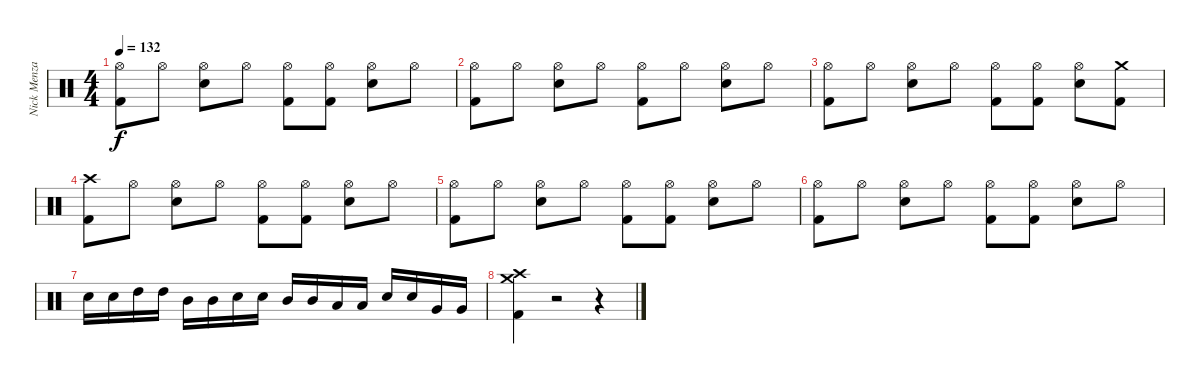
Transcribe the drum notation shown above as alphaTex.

\track ("Nick Menza (Drums)" "Nick Menza") {instrument percussion}
\staff {score}
\articulation defaults
\ts (4 4)
\tempo 132
\clef neutral
\ks c
("Hi-Hat (open)" "Kick (hit) 2").8{dy f} "Hi-Hat (open)".8 ("Hi-Hat (open)" "Snare (hit) 2").8 "Hi-Hat (open)".8 ("Hi-Hat (open)" "Kick (hit) 2").8 ("Hi-Hat (open)" "Kick (hit) 2").8 ("Hi-Hat (open)" "Snare (hit) 2").8 "Hi-Hat (open)".8 |
("Hi-Hat (open)" "Kick (hit) 2").8 "Hi-Hat (open)".8 ("Hi-Hat (open)" "Snare (hit) 2").8 "Hi-Hat (open)".8 ("Hi-Hat (open)" "Kick (hit) 2").8 "Hi-Hat (open)".8 ("Hi-Hat (open)" "Snare (hit) 2").8 "Hi-Hat (open)".8 |
("Hi-Hat (open)" "Kick (hit) 2").8 "Hi-Hat (open)".8 ("Hi-Hat (open)" "Snare (hit) 2").8 "Hi-Hat (open)".8 ("Hi-Hat (open)" "Kick (hit) 2").8 ("Hi-Hat (open)" "Kick (hit) 2").8 ("Hi-Hat (open)" "Snare (hit) 2").8 ("Crash medium (hit)" "Kick (hit) 2").8 |
("Crash high (hit)" "Kick (hit) 2").8 "Hi-Hat (open)".8 ("Hi-Hat (open)" "Snare (hit) 2").8 "Hi-Hat (open)".8 ("Hi-Hat (open)" "Kick (hit) 2").8 ("Hi-Hat (open)" "Kick (hit) 2").8 ("Hi-Hat (open)" "Snare (hit) 2").8 "Hi-Hat (open)".8 |
("Hi-Hat (open)" "Kick (hit) 2").8 "Hi-Hat (open)".8 ("Hi-Hat (open)" "Snare (hit) 2").8 "Hi-Hat (open)".8 ("Hi-Hat (open)" "Kick (hit) 2").8 ("Hi-Hat (open)" "Kick (hit) 2").8 ("Hi-Hat (open)" "Snare (hit) 2").8 "Hi-Hat (open)".8 |
("Hi-Hat (open)" "Kick (hit) 2").8 "Hi-Hat (open)".8 ("Hi-Hat (open)" "Snare (hit) 2").8 "Hi-Hat (open)".8 ("Hi-Hat (open)" "Kick (hit) 2").8 ("Hi-Hat (open)" "Kick (hit) 2").8 ("Hi-Hat (open)" "Snare (hit) 2").8 "Hi-Hat (open)".8 |
"Snare (hit) 2".16 "Snare (hit) 2".16 "High Tom (hit)".16 "High Tom (hit)".16 "Mid Tom (hit)".16 "Mid Tom (hit)".16 "Snare (hit) 2".16 "Snare (hit) 2".16 "Mid Tom (hit)".16 "Mid Tom (hit)".16 "Low Tom (hit)".16 "Low Tom (hit)".16 "Snare (hit) 2".16 "Snare (hit) 2".16 "Very Low Tom (hit)".16 "Very Low Tom (hit)".16 |
("Crash medium (hit)" "Crash high (hit)" "Kick (hit) 2").4 r.2 r.4
